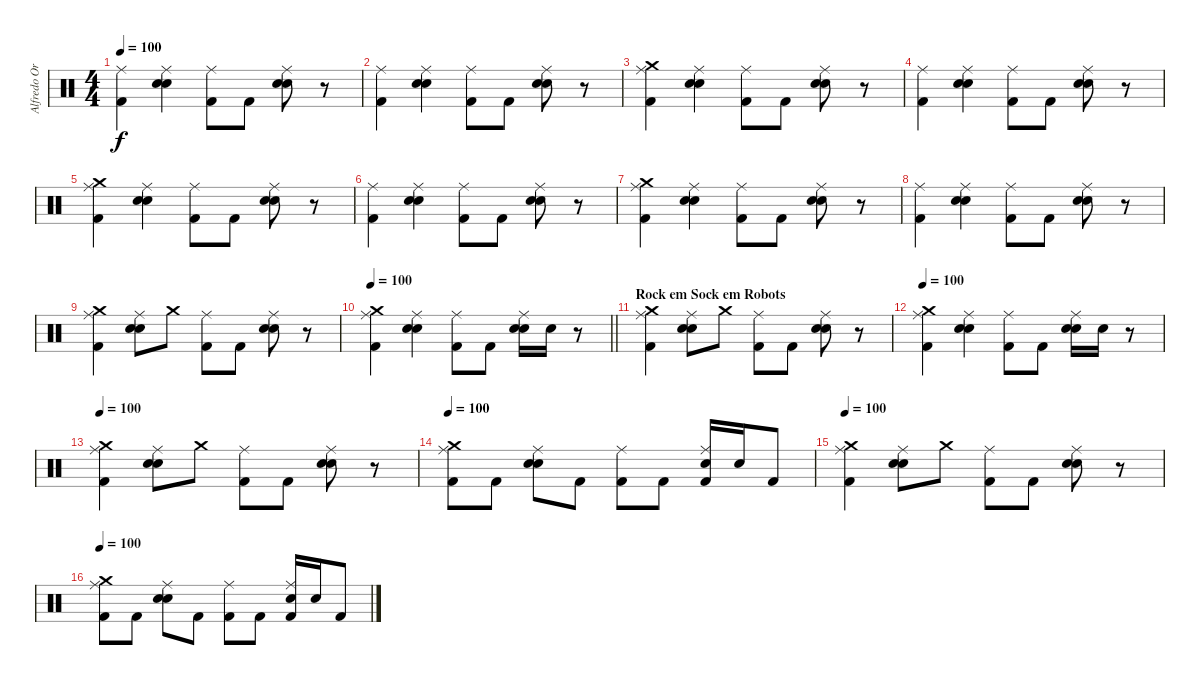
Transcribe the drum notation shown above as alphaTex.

\track ("Alfredo Ortiz (Drums)" "Alfredo Or") {instrument percussion}
\staff {score}
\articulation defaults
\ts (4 4)
\tempo 100
\clef neutral
\ks c
("Kick (hit) 2" "Ride (middle)").4{dy f} ("Snare (hit) 2" "Electric Snare (hit)" "Ride (middle)").4 ("Kick (hit) 2" "Ride (middle)").8 "Kick (hit) 2".8 ("Snare (hit) 2" "Electric Snare (hit)" "Ride (middle)").8 r.8 |
("Kick (hit) 2" "Ride (middle)").4 ("Snare (hit) 2" "Electric Snare (hit)" "Ride (middle)").4 ("Kick (hit) 2" "Ride (middle)").8 "Kick (hit) 2".8 ("Snare (hit) 2" "Electric Snare (hit)" "Ride (middle)").8 r.8 |
("Kick (hit) 2" "Ride (middle)" "Crash medium (hit)").4 ("Snare (hit) 2" "Electric Snare (hit)" "Ride (middle)").4 ("Kick (hit) 2" "Ride (middle)").8 "Kick (hit) 2".8 ("Snare (hit) 2" "Electric Snare (hit)" "Ride (middle)").8 r.8 |
("Kick (hit) 2" "Ride (middle)").4 ("Snare (hit) 2" "Electric Snare (hit)" "Ride (middle)").4 ("Kick (hit) 2" "Ride (middle)").8 "Kick (hit) 2".8 ("Snare (hit) 2" "Electric Snare (hit)" "Ride (middle)").8 r.8 |
("Kick (hit) 2" "Ride (middle)" "Crash medium (hit)").4 ("Snare (hit) 2" "Electric Snare (hit)" "Ride (middle)").4 ("Kick (hit) 2" "Ride (middle)").8 "Kick (hit) 2".8 ("Snare (hit) 2" "Electric Snare (hit)" "Ride (middle)").8 r.8 |
("Kick (hit) 2" "Ride (middle)").4 ("Snare (hit) 2" "Electric Snare (hit)" "Ride (middle)").4 ("Kick (hit) 2" "Ride (middle)").8 "Kick (hit) 2".8 ("Snare (hit) 2" "Electric Snare (hit)" "Ride (middle)").8 r.8 |
("Kick (hit) 2" "Ride (middle)" "Crash medium (hit)").4 ("Snare (hit) 2" "Electric Snare (hit)" "Ride (middle)").4 ("Kick (hit) 2" "Ride (middle)").8 "Kick (hit) 2".8 ("Snare (hit) 2" "Electric Snare (hit)" "Ride (middle)").8 r.8 |
("Kick (hit) 2" "Ride (middle)").4 ("Snare (hit) 2" "Electric Snare (hit)" "Ride (middle)").4 ("Kick (hit) 2" "Ride (middle)").8 "Kick (hit) 2".8 ("Snare (hit) 2" "Electric Snare (hit)" "Ride (middle)").8 r.8 |
("Kick (hit) 2" "Ride (middle)" "Crash medium (hit)").4 ("Snare (hit) 2" "Electric Snare (hit)" "Ride (middle)").8 "Crash medium (hit)".8 ("Kick (hit) 2" "Ride (middle)").8 "Kick (hit) 2".8 ("Snare (hit) 2" "Electric Snare (hit)" "Ride (middle)").8 r.8 |
\tempo 100
\barLineRight lightlight
("Kick (hit) 2" "Ride (middle)" "Crash medium (hit)").4 ("Snare (hit) 2" "Electric Snare (hit)" "Ride (middle)").4 ("Kick (hit) 2" "Ride (middle)").8 "Kick (hit) 2".8 ("Snare (hit) 2" "Electric Snare (hit)" "Ride (middle)").16 "Snare (hit) 2".16 r.8 |
\section ("" "Rock em Sock em Robots")
("Kick (hit) 2" "Ride (middle)" "Crash medium (hit)").4 ("Snare (hit) 2" "Electric Snare (hit)" "Ride (middle)").8 "Crash medium (hit)".8 ("Kick (hit) 2" "Ride (middle)").8 "Kick (hit) 2".8 ("Snare (hit) 2" "Electric Snare (hit)" "Ride (middle)").8 r.8 |
\tempo 100
("Kick (hit) 2" "Ride (middle)" "Crash medium (hit)").4 ("Snare (hit) 2" "Electric Snare (hit)" "Ride (middle)").4 ("Kick (hit) 2" "Ride (middle)").8 "Kick (hit) 2".8 ("Snare (hit) 2" "Electric Snare (hit)" "Ride (middle)").16 "Snare (hit) 2".16 r.8 |
\tempo 100
("Kick (hit) 2" "Ride (middle)" "Crash medium (hit)").4 ("Snare (hit) 2" "Electric Snare (hit)" "Ride (middle)").8 "Crash medium (hit)".8 ("Kick (hit) 2" "Ride (middle)").8 "Kick (hit) 2".8 ("Snare (hit) 2" "Electric Snare (hit)" "Ride (middle)").8 r.8 |
\tempo 100
("Kick (hit) 2" "Ride (middle)" "Crash medium (hit)").8 "Kick (hit) 2".8 ("Snare (hit) 2" "Electric Snare (hit)" "Ride (middle)").8 "Kick (hit) 2".8 ("Kick (hit) 2" "Ride (middle)").8 "Kick (hit) 2".8 ("Kick (hit) 2" "Electric Snare (hit)" "Ride (middle)").16 "Snare (hit) 2".16 "Kick (hit) 2".8 |
\tempo 100
("Kick (hit) 2" "Ride (middle)" "Crash medium (hit)").4 ("Snare (hit) 2" "Electric Snare (hit)" "Ride (middle)").8 "Crash medium (hit)".8 ("Kick (hit) 2" "Ride (middle)").8 "Kick (hit) 2".8 ("Snare (hit) 2" "Electric Snare (hit)" "Ride (middle)").8 r.8 |
\tempo 100
("Kick (hit) 2" "Ride (middle)" "Crash medium (hit)").8 "Kick (hit) 2".8 ("Snare (hit) 2" "Electric Snare (hit)" "Ride (middle)").8 "Kick (hit) 2".8 ("Kick (hit) 2" "Ride (middle)").8 "Kick (hit) 2".8 ("Kick (hit) 2" "Electric Snare (hit)" "Ride (middle)").16 "Snare (hit) 2".16 "Kick (hit) 2".8
